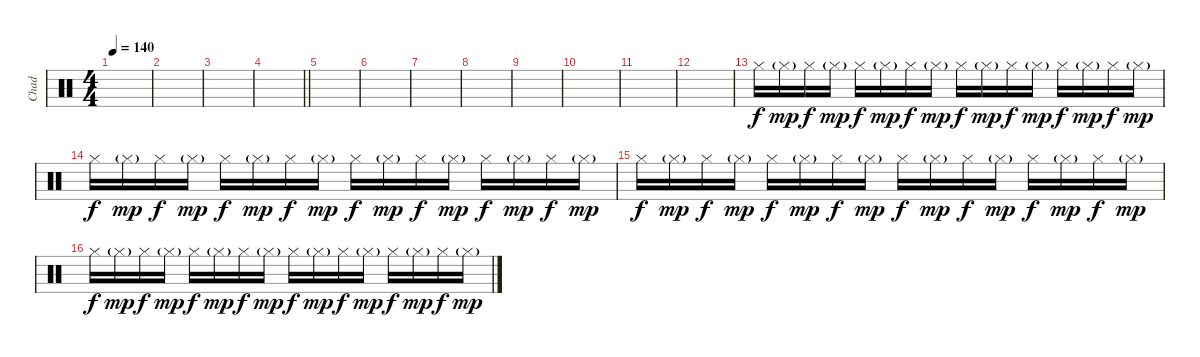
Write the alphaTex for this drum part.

\track ("Chad" "Chad") {instrument percussion}
\staff {score}
\articulation defaults
\ts (4 4)
\tempo 140
\clef neutral
\ks c
|
|
|
\barLineRight lightlight
|
|
|
|
|
|
|
|
|
"Hi-Hat (closed)".16 "Hi-Hat (closed)"{g}.16{dy mp} "Hi-Hat (closed)".16{dy f} "Hi-Hat (closed)"{g}.16{dy mp} "Hi-Hat (closed)".16{dy f} "Hi-Hat (closed)"{g}.16{dy mp} "Hi-Hat (closed)".16{dy f} "Hi-Hat (closed)"{g}.16{dy mp} "Hi-Hat (closed)".16{dy f} "Hi-Hat (closed)"{g}.16{dy mp} "Hi-Hat (closed)".16{dy f} "Hi-Hat (closed)"{g}.16{dy mp} "Hi-Hat (closed)".16{dy f} "Hi-Hat (closed)"{g}.16{dy mp} "Hi-Hat (closed)".16{dy f} "Hi-Hat (closed)"{g}.16{dy mp} |
"Hi-Hat (closed)".16{dy f} "Hi-Hat (closed)"{g}.16{dy mp} "Hi-Hat (closed)".16{dy f} "Hi-Hat (closed)"{g}.16{dy mp} "Hi-Hat (closed)".16{dy f} "Hi-Hat (closed)"{g}.16{dy mp} "Hi-Hat (closed)".16{dy f} "Hi-Hat (closed)"{g}.16{dy mp} "Hi-Hat (closed)".16{dy f} "Hi-Hat (closed)"{g}.16{dy mp} "Hi-Hat (closed)".16{dy f} "Hi-Hat (closed)"{g}.16{dy mp} "Hi-Hat (closed)".16{dy f} "Hi-Hat (closed)"{g}.16{dy mp} "Hi-Hat (closed)".16{dy f} "Hi-Hat (closed)"{g}.16{dy mp} |
"Hi-Hat (closed)".16{dy f} "Hi-Hat (closed)"{g}.16{dy mp} "Hi-Hat (closed)".16{dy f} "Hi-Hat (closed)"{g}.16{dy mp} "Hi-Hat (closed)".16{dy f} "Hi-Hat (closed)"{g}.16{dy mp} "Hi-Hat (closed)".16{dy f} "Hi-Hat (closed)"{g}.16{dy mp} "Hi-Hat (closed)".16{dy f} "Hi-Hat (closed)"{g}.16{dy mp} "Hi-Hat (closed)".16{dy f} "Hi-Hat (closed)"{g}.16{dy mp} "Hi-Hat (closed)".16{dy f} "Hi-Hat (closed)"{g}.16{dy mp} "Hi-Hat (closed)".16{dy f} "Hi-Hat (closed)"{g}.16{dy mp} |
"Hi-Hat (closed)".16{dy f} "Hi-Hat (closed)"{g}.16{dy mp} "Hi-Hat (closed)".16{dy f} "Hi-Hat (closed)"{g}.16{dy mp} "Hi-Hat (closed)".16{dy f} "Hi-Hat (closed)"{g}.16{dy mp} "Hi-Hat (closed)".16{dy f} "Hi-Hat (closed)"{g}.16{dy mp} "Hi-Hat (closed)".16{dy f} "Hi-Hat (closed)"{g}.16{dy mp} "Hi-Hat (closed)".16{dy f} "Hi-Hat (closed)"{g}.16{dy mp} "Hi-Hat (closed)".16{dy f} "Hi-Hat (closed)"{g}.16{dy mp} "Hi-Hat (closed)".16{dy f} "Hi-Hat (closed)"{g}.16{dy mp}
